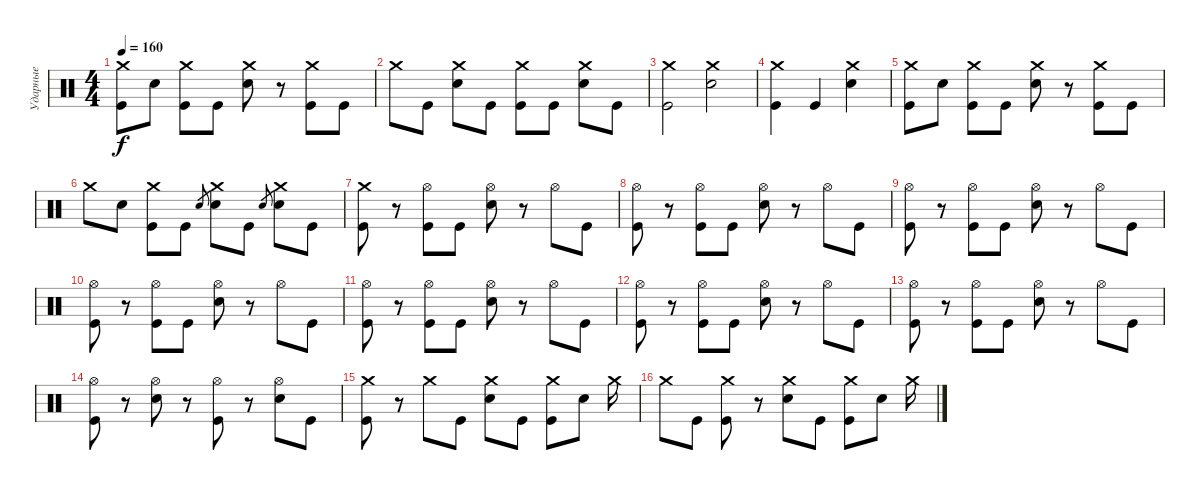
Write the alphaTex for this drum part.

\track ("Ударные" "Ударные") {instrument percussion}
\staff {score}
\articulation defaults
\ts (4 4)
\tempo 160
\clef neutral
\ks c
("Crash medium (hit)" "Kick (hit)").8{dy f} "Electric Snare (hit)".8 ("Crash medium (hit)" "Kick (hit)").8 "Kick (hit)".8 ("Crash medium (hit)" "Electric Snare (hit)").8 r.8 ("Crash medium (hit)" "Kick (hit)").8 "Kick (hit)".8 |
"Crash medium (hit)".8 "Kick (hit)".8 ("Crash medium (hit)" "Electric Snare (hit)").8 "Kick (hit)".8 ("Crash medium (hit)" "Kick (hit)").8 "Kick (hit)".8 ("Crash medium (hit)" "Electric Snare (hit)").8 "Kick (hit)".8 |
("Crash medium (hit)" "Kick (hit)").2 ("Crash medium (hit)" "Electric Snare (hit)").2 |
("Crash medium (hit)" "Kick (hit)").4 "Kick (hit)".4 ("Crash medium (hit)" "Electric Snare (hit)").4 |
("Crash medium (hit)" "Kick (hit)").8 "Electric Snare (hit)".8 ("Crash medium (hit)" "Kick (hit)").8 "Kick (hit)".8 ("Crash medium (hit)" "Electric Snare (hit)").8 r.8 ("Crash medium (hit)" "Kick (hit)").8 "Kick (hit)".8 |
"Crash medium (hit)".8 "Electric Snare (hit)".8 ("Crash medium (hit)" "Kick (hit)").8 "Kick (hit)".8 "Electric Snare (hit)".8{gr} ("Crash medium (hit)" "Electric Snare (hit)").8 "Kick (hit)".8 "Electric Snare (hit)".8{gr} ("Crash medium (hit)" "Electric Snare (hit)").8 "Kick (hit)".8 |
("Crash medium (hit)" "Kick (hit)").8 r.8 ("Hi-Hat (open)" "Kick (hit)").8 "Kick (hit)".8 ("Hi-Hat (open)" "Electric Snare (hit)").8 r.8 "Hi-Hat (open)".8 "Kick (hit)".8 |
("Hi-Hat (open)" "Kick (hit)").8 r.8 ("Hi-Hat (open)" "Kick (hit)").8 "Kick (hit)".8 ("Hi-Hat (open)" "Electric Snare (hit)").8 r.8 "Hi-Hat (open)".8 "Kick (hit)".8 |
("Hi-Hat (open)" "Kick (hit)").8 r.8 ("Hi-Hat (open)" "Kick (hit)").8 "Kick (hit)".8 ("Hi-Hat (open)" "Electric Snare (hit)").8 r.8 "Hi-Hat (open)".8 "Kick (hit)".8 |
("Hi-Hat (open)" "Kick (hit)").8 r.8 ("Hi-Hat (open)" "Kick (hit)").8 "Kick (hit)".8 ("Hi-Hat (open)" "Electric Snare (hit)").8 r.8 "Hi-Hat (open)".8 "Kick (hit)".8 |
("Hi-Hat (open)" "Kick (hit)").8 r.8 ("Hi-Hat (open)" "Kick (hit)").8 "Kick (hit)".8 ("Hi-Hat (open)" "Electric Snare (hit)").8 r.8 "Hi-Hat (open)".8 "Kick (hit)".8 |
("Hi-Hat (open)" "Kick (hit)").8 r.8 ("Hi-Hat (open)" "Kick (hit)").8 "Kick (hit)".8 ("Hi-Hat (open)" "Electric Snare (hit)").8 r.8 "Hi-Hat (open)".8 "Kick (hit)".8 |
("Hi-Hat (open)" "Kick (hit)").8 r.8 ("Hi-Hat (open)" "Kick (hit)").8 "Kick (hit)".8 ("Hi-Hat (open)" "Electric Snare (hit)").8 r.8 "Hi-Hat (open)".8 "Kick (hit)".8 |
("Hi-Hat (open)" "Kick (hit)").8 r.8 ("Hi-Hat (open)" "Electric Snare (hit)").8 r.8 ("Hi-Hat (open)" "Kick (hit)").8 r.8 ("Hi-Hat (open)" "Electric Snare (hit)").8 "Kick (hit)".8 |
("Crash medium (hit)" "Kick (hit)").8 r.8 "Crash medium (hit)".8 "Kick (hit)".8 ("Crash medium (hit)" "Electric Snare (hit)").8 "Kick (hit)".8 ("Crash medium (hit)" "Kick (hit)").8 "Electric Snare (hit)".8 "Crash medium (hit)".16 |
"Crash medium (hit)".8 "Kick (hit)".8 ("Crash medium (hit)" "Kick (hit)").8 r.8 ("Crash medium (hit)" "Electric Snare (hit)").8 "Kick (hit)".8 ("Crash medium (hit)" "Kick (hit)").8 "Electric Snare (hit)".8 "Crash medium (hit)".16
